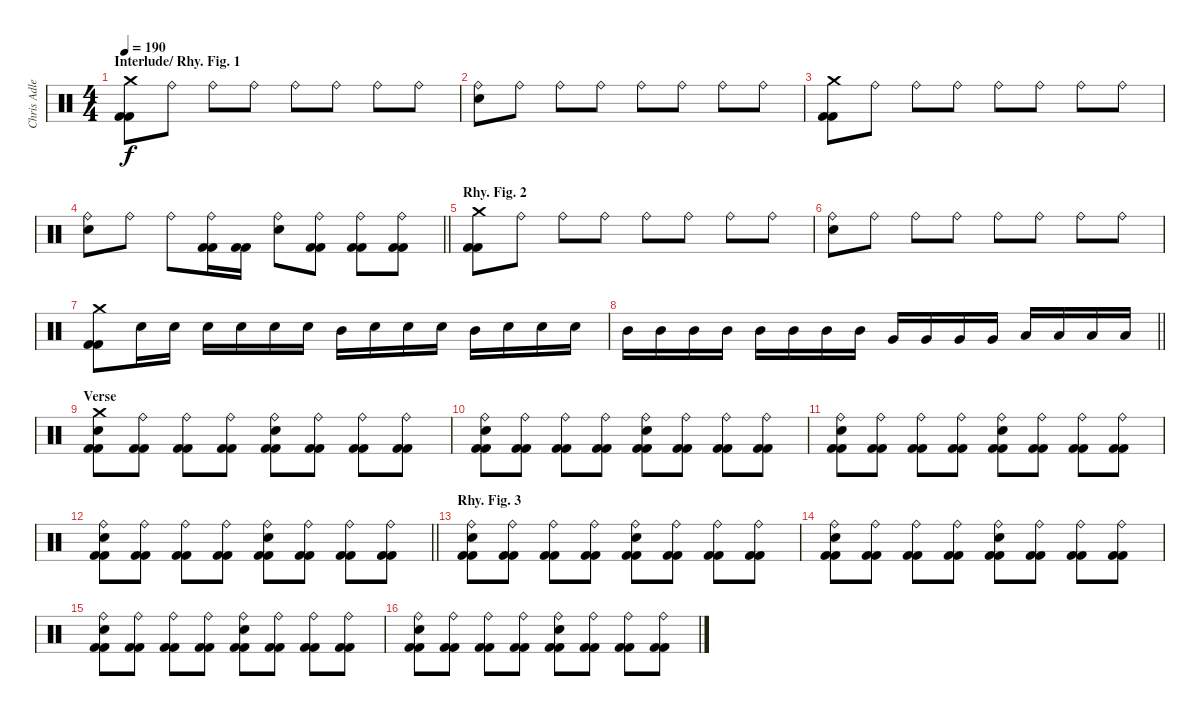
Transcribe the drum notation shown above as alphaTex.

\track ("Chris Adler" "Chris Adle") {instrument percussion}
\staff {score}
\articulation defaults
\ts (4 4)
\section ("" "Interlude/ Rhy. Fig. 1")
\tempo 190
\clef neutral
\ks c
("Crash medium (hit)" "Kick (hit) 2" "Kick (hit) 2").8{dy f} "Ride (bell)".8 "Ride (bell)".8 "Ride (bell)".8 "Ride (bell)".8 "Ride (bell)".8 "Ride (bell)".8 "Ride (bell)".8 |
("Ride (bell)" "Snare (hit) 2").8 "Ride (bell)".8 "Ride (bell)".8 "Ride (bell)".8 "Ride (bell)".8 "Ride (bell)".8 "Ride (bell)".8 "Ride (bell)".8 |
("Crash medium (hit)" "Kick (hit) 2" "Kick (hit) 2").8 "Ride (bell)".8 "Ride (bell)".8 "Ride (bell)".8 "Ride (bell)".8 "Ride (bell)".8 "Ride (bell)".8 "Ride (bell)".8 |
\barLineRight lightlight
("Ride (bell)" "Snare (hit) 2").8 "Ride (bell)".8 "Ride (bell)".8 ("Ride (bell)" "Kick (hit) 2" "Kick (hit) 2").16 ("Kick (hit) 2" "Kick (hit) 2").16 ("Ride (bell)" "Snare (hit) 2").8 ("Ride (bell)" "Kick (hit) 2" "Kick (hit) 2").8 ("Ride (bell)" "Kick (hit) 2" "Kick (hit) 2").8 ("Ride (bell)" "Kick (hit) 2" "Kick (hit) 2").8 |
\section ("" "Rhy. Fig. 2")
("Crash medium (hit)" "Kick (hit) 2" "Kick (hit) 2").8 "Ride (bell)".8 "Ride (bell)".8 "Ride (bell)".8 "Ride (bell)".8 "Ride (bell)".8 "Ride (bell)".8 "Ride (bell)".8 |
("Ride (bell)" "Snare (hit) 2").8 "Ride (bell)".8 "Ride (bell)".8 "Ride (bell)".8 "Ride (bell)".8 "Ride (bell)".8 "Ride (bell)".8 "Ride (bell)".8 |
("Crash medium (hit)" "Kick (hit) 2" "Kick (hit) 2").8 "Snare (hit) 2".16 "Snare (hit) 2".16 "Snare (hit) 2".16 "Snare (hit) 2".16 "Snare (hit) 2".16 "Snare (hit) 2".16 "Mid Tom (hit)".16 "Snare (hit) 2".16 "Snare (hit) 2".16 "Snare (hit) 2".16 "Mid Tom (hit)".16 "Snare (hit) 2".16 "Snare (hit) 2".16 "Snare (hit) 2".16 |
\barLineRight lightlight "Mid Tom (hit)".16 "Mid Tom (hit)".16 "Mid Tom (hit)".16 "Mid Tom (hit)".16 "Mid Tom (hit)".16 "Mid Tom (hit)".16 "Mid Tom (hit)".16 "Mid Tom (hit)".16 "Very Low Tom (hit)".16 "Very Low Tom (hit)".16 "Very Low Tom (hit)".16 "Very Low Tom (hit)".16 "Low Floor Tom (hit)".16 "Low Floor Tom (hit)".16 "Low Floor Tom (hit)".16 "Low Floor Tom (hit)".16
|
\section ("" "Verse")
("Crash medium (hit)" "Snare (hit) 2" "Kick (hit) 2" "Kick (hit) 2").8 ("Ride (bell)" "Kick (hit) 2" "Kick (hit) 2").8 ("Ride (bell)" "Kick (hit) 2" "Kick (hit) 2").8 ("Ride (bell)" "Kick (hit) 2" "Kick (hit) 2").8 ("Ride (bell)" "Snare (hit) 2" "Kick (hit) 2" "Kick (hit) 2").8 ("Ride (bell)" "Kick (hit) 2" "Kick (hit) 2").8 ("Ride (bell)" "Kick (hit) 2" "Kick (hit) 2").8 ("Ride (bell)" "Kick (hit) 2" "Kick (hit) 2").8 |
("Ride (bell)" "Snare (hit) 2" "Kick (hit) 2" "Kick (hit) 2").8 ("Ride (bell)" "Kick (hit) 2" "Kick (hit) 2").8 ("Ride (bell)" "Kick (hit) 2" "Kick (hit) 2").8 ("Ride (bell)" "Kick (hit) 2" "Kick (hit) 2").8 ("Ride (bell)" "Snare (hit) 2" "Kick (hit) 2" "Kick (hit) 2").8 ("Ride (bell)" "Kick (hit) 2" "Kick (hit) 2").8 ("Ride (bell)" "Kick (hit) 2" "Kick (hit) 2").8 ("Ride (bell)" "Kick (hit) 2" "Kick (hit) 2").8 |
("Ride (bell)" "Snare (hit) 2" "Kick (hit) 2" "Kick (hit) 2").8 ("Ride (bell)" "Kick (hit) 2" "Kick (hit) 2").8 ("Ride (bell)" "Kick (hit) 2" "Kick (hit) 2").8 ("Ride (bell)" "Kick (hit) 2" "Kick (hit) 2").8 ("Ride (bell)" "Snare (hit) 2" "Kick (hit) 2" "Kick (hit) 2").8 ("Ride (bell)" "Kick (hit) 2" "Kick (hit) 2").8 ("Ride (bell)" "Kick (hit) 2" "Kick (hit) 2").8 ("Ride (bell)" "Kick (hit) 2" "Kick (hit) 2").8 |
\barLineRight lightlight
("Ride (bell)" "Snare (hit) 2" "Kick (hit) 2" "Kick (hit) 2").8 ("Ride (bell)" "Kick (hit) 2" "Kick (hit) 2").8 ("Ride (bell)" "Kick (hit) 2" "Kick (hit) 2").8 ("Ride (bell)" "Kick (hit) 2" "Kick (hit) 2").8 ("Ride (bell)" "Snare (hit) 2" "Kick (hit) 2" "Kick (hit) 2").8 ("Ride (bell)" "Kick (hit) 2" "Kick (hit) 2").8 ("Ride (bell)" "Kick (hit) 2" "Kick (hit) 2").8 ("Ride (bell)" "Kick (hit) 2" "Kick (hit) 2").8 |
\section ("" "Rhy. Fig. 3")
("Ride (bell)" "Snare (hit) 2" "Kick (hit) 2" "Kick (hit) 2").8 ("Ride (bell)" "Kick (hit) 2" "Kick (hit) 2").8 ("Ride (bell)" "Kick (hit) 2" "Kick (hit) 2").8 ("Ride (bell)" "Kick (hit) 2" "Kick (hit) 2").8 ("Ride (bell)" "Snare (hit) 2" "Kick (hit) 2" "Kick (hit) 2").8 ("Ride (bell)" "Kick (hit) 2" "Kick (hit) 2").8 ("Ride (bell)" "Kick (hit) 2" "Kick (hit) 2").8 ("Ride (bell)" "Kick (hit) 2" "Kick (hit) 2").8 |
("Ride (bell)" "Snare (hit) 2" "Kick (hit) 2" "Kick (hit) 2").8 ("Ride (bell)" "Kick (hit) 2" "Kick (hit) 2").8 ("Ride (bell)" "Kick (hit) 2" "Kick (hit) 2").8 ("Ride (bell)" "Kick (hit) 2" "Kick (hit) 2").8 ("Ride (bell)" "Snare (hit) 2" "Kick (hit) 2" "Kick (hit) 2").8 ("Ride (bell)" "Kick (hit) 2" "Kick (hit) 2").8 ("Ride (bell)" "Kick (hit) 2" "Kick (hit) 2").8 ("Ride (bell)" "Kick (hit) 2" "Kick (hit) 2").8 |
("Ride (bell)" "Snare (hit) 2" "Kick (hit) 2" "Kick (hit) 2").8 ("Ride (bell)" "Kick (hit) 2" "Kick (hit) 2").8 ("Ride (bell)" "Kick (hit) 2" "Kick (hit) 2").8 ("Ride (bell)" "Kick (hit) 2" "Kick (hit) 2").8 ("Ride (bell)" "Snare (hit) 2" "Kick (hit) 2" "Kick (hit) 2").8 ("Ride (bell)" "Kick (hit) 2" "Kick (hit) 2").8 ("Ride (bell)" "Kick (hit) 2" "Kick (hit) 2").8 ("Ride (bell)" "Kick (hit) 2" "Kick (hit) 2").8 |
("Ride (bell)" "Snare (hit) 2" "Kick (hit) 2" "Kick (hit) 2").8 ("Ride (bell)" "Kick (hit) 2" "Kick (hit) 2").8 ("Ride (bell)" "Kick (hit) 2" "Kick (hit) 2").8 ("Ride (bell)" "Kick (hit) 2" "Kick (hit) 2").8 ("Ride (bell)" "Snare (hit) 2" "Kick (hit) 2" "Kick (hit) 2").8 ("Ride (bell)" "Kick (hit) 2" "Kick (hit) 2").8 ("Ride (bell)" "Kick (hit) 2" "Kick (hit) 2").8 ("Ride (bell)" "Kick (hit) 2" "Kick (hit) 2").8
